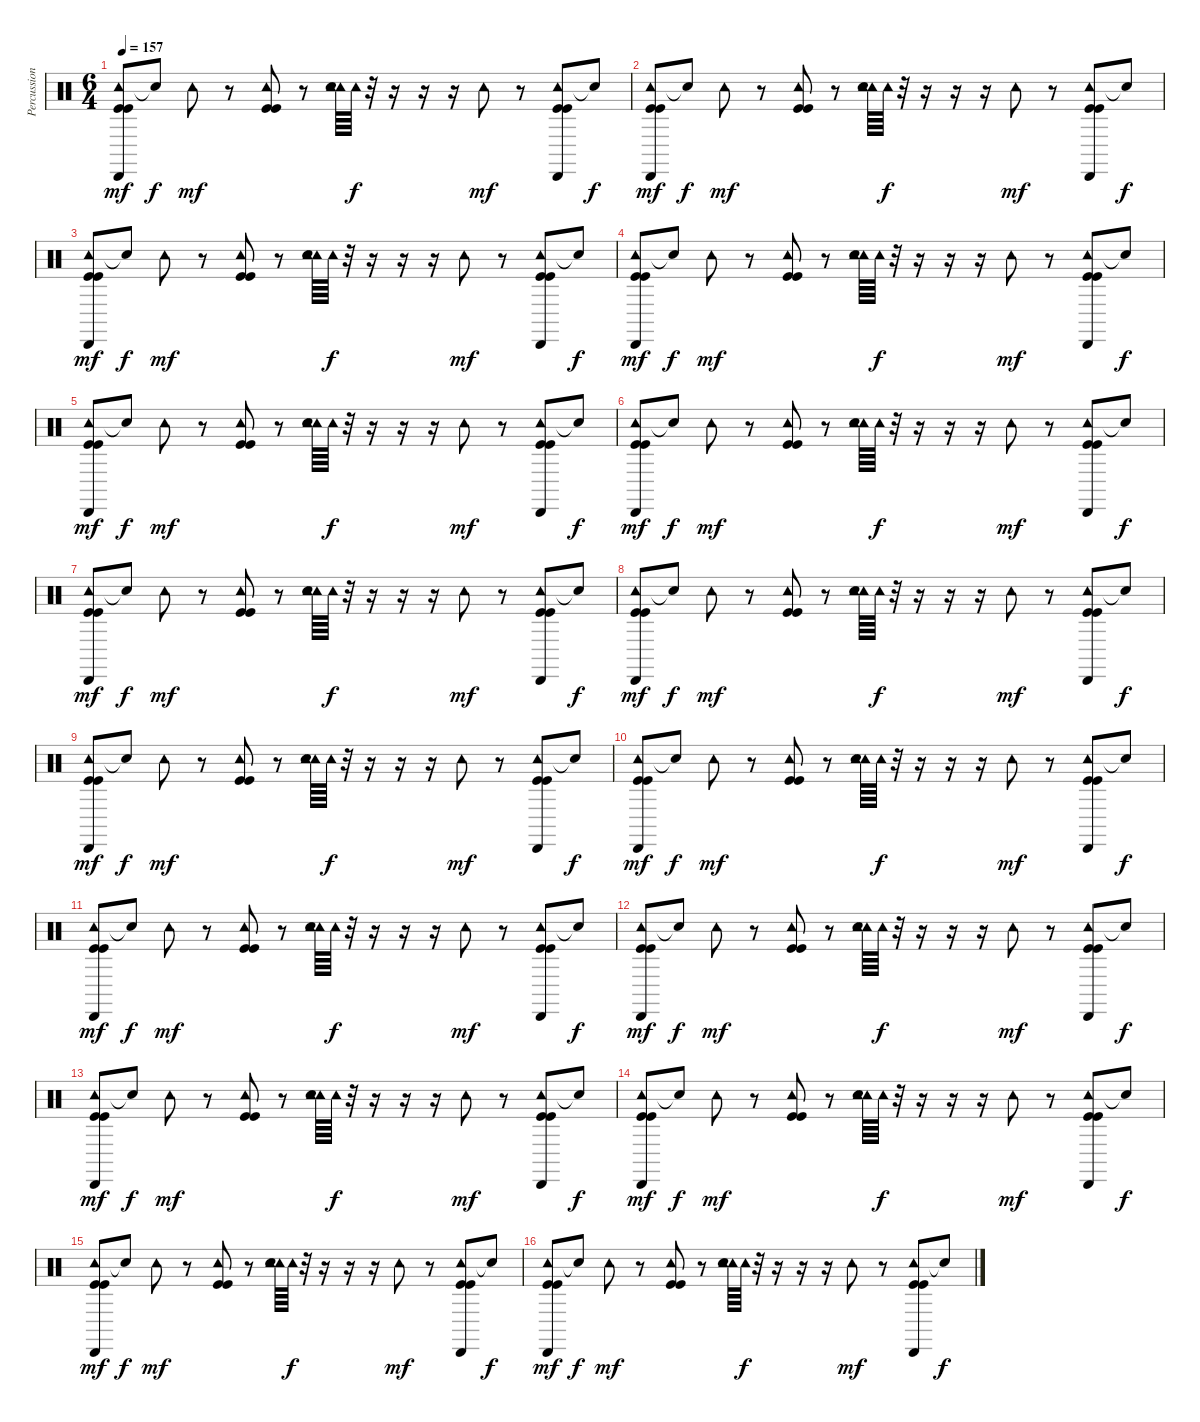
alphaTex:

\track ("Percussions" "Percussion") {instrument percussion}
\staff {score}
\articulation defaults
\ts (6 4)
\tempo 157
\clef neutral
\ks c
("Tambourine (hit)" "Cabasa (hit)" "Kick (hit)" "Kick (hit)").8{dy mf} "Snare (hit)"{t}.8{dy f} "Tambourine (hit)".8{dy mf} r.8 ("Tambourine (hit)" "Kick (hit)" "Kick (hit)").8 r.8 ("Tambourine (hit)" "Tambourine (hit)" "Snare (hit) 2").64 "Tambourine (hit)".64{dy f} r.32 r.16 r.16 r.16 "Tambourine (hit)".8{dy mf} r.8 ("Tambourine (hit)" "Cabasa (hit)" "Kick (hit)" "Kick (hit)").8 "Snare (hit)"{t}.8{dy f} |
("Tambourine (hit)" "Cabasa (hit)" "Kick (hit)" "Kick (hit)").8{dy mf} "Snare (hit)"{t}.8{dy f} "Tambourine (hit)".8{dy mf} r.8 ("Tambourine (hit)" "Kick (hit)" "Kick (hit)").8 r.8 ("Tambourine (hit)" "Tambourine (hit)" "Snare (hit) 2").64 "Tambourine (hit)".64{dy f} r.32 r.16 r.16 r.16 "Tambourine (hit)".8{dy mf} r.8 ("Tambourine (hit)" "Cabasa (hit)" "Kick (hit)" "Kick (hit)").8 "Snare (hit)"{t}.8{dy f} |
("Tambourine (hit)" "Cabasa (hit)" "Kick (hit)" "Kick (hit)").8{dy mf} "Snare (hit)"{t}.8{dy f} "Tambourine (hit)".8{dy mf} r.8 ("Tambourine (hit)" "Kick (hit)" "Kick (hit)").8 r.8 ("Tambourine (hit)" "Tambourine (hit)" "Snare (hit) 2").64 "Tambourine (hit)".64{dy f} r.32 r.16 r.16 r.16 "Tambourine (hit)".8{dy mf} r.8 ("Tambourine (hit)" "Cabasa (hit)" "Kick (hit)" "Kick (hit)").8 "Snare (hit)"{t}.8{dy f} |
("Tambourine (hit)" "Cabasa (hit)" "Kick (hit)" "Kick (hit)").8{dy mf} "Snare (hit)"{t}.8{dy f} "Tambourine (hit)".8{dy mf} r.8 ("Tambourine (hit)" "Kick (hit)" "Kick (hit)").8 r.8 ("Tambourine (hit)" "Tambourine (hit)" "Snare (hit) 2").64 "Tambourine (hit)".64{dy f} r.32 r.16 r.16 r.16 "Tambourine (hit)".8{dy mf} r.8 ("Tambourine (hit)" "Cabasa (hit)" "Kick (hit)" "Kick (hit)").8 "Snare (hit)"{t}.8{dy f} |
("Tambourine (hit)" "Cabasa (hit)" "Kick (hit)" "Kick (hit)").8{dy mf} "Snare (hit)"{t}.8{dy f} "Tambourine (hit)".8{dy mf} r.8 ("Tambourine (hit)" "Kick (hit)" "Kick (hit)").8 r.8 ("Tambourine (hit)" "Tambourine (hit)" "Snare (hit) 2").64 "Tambourine (hit)".64{dy f} r.32 r.16 r.16 r.16 "Tambourine (hit)".8{dy mf} r.8 ("Tambourine (hit)" "Cabasa (hit)" "Kick (hit)" "Kick (hit)").8 "Snare (hit)"{t}.8{dy f} |
("Tambourine (hit)" "Cabasa (hit)" "Kick (hit)" "Kick (hit)").8{dy mf} "Snare (hit)"{t}.8{dy f} "Tambourine (hit)".8{dy mf} r.8 ("Tambourine (hit)" "Kick (hit)" "Kick (hit)").8 r.8 ("Tambourine (hit)" "Tambourine (hit)" "Snare (hit) 2").64 "Tambourine (hit)".64{dy f} r.32 r.16 r.16 r.16 "Tambourine (hit)".8{dy mf} r.8 ("Tambourine (hit)" "Cabasa (hit)" "Kick (hit)" "Kick (hit)").8 "Snare (hit)"{t}.8{dy f} |
("Tambourine (hit)" "Cabasa (hit)" "Kick (hit)" "Kick (hit)").8{dy mf} "Snare (hit)"{t}.8{dy f} "Tambourine (hit)".8{dy mf} r.8 ("Tambourine (hit)" "Kick (hit)" "Kick (hit)").8 r.8 ("Tambourine (hit)" "Tambourine (hit)" "Snare (hit) 2").64 "Tambourine (hit)".64{dy f} r.32 r.16 r.16 r.16 "Tambourine (hit)".8{dy mf} r.8 ("Tambourine (hit)" "Cabasa (hit)" "Kick (hit)" "Kick (hit)").8 "Snare (hit)"{t}.8{dy f} |
("Tambourine (hit)" "Cabasa (hit)" "Kick (hit)" "Kick (hit)").8{dy mf} "Snare (hit)"{t}.8{dy f} "Tambourine (hit)".8{dy mf} r.8 ("Tambourine (hit)" "Kick (hit)" "Kick (hit)").8 r.8 ("Tambourine (hit)" "Tambourine (hit)" "Snare (hit) 2").64 "Tambourine (hit)".64{dy f} r.32 r.16 r.16 r.16 "Tambourine (hit)".8{dy mf} r.8 ("Tambourine (hit)" "Cabasa (hit)" "Kick (hit)" "Kick (hit)").8 "Snare (hit)"{t}.8{dy f} |
("Tambourine (hit)" "Cabasa (hit)" "Kick (hit)" "Kick (hit)").8{dy mf} "Snare (hit)"{t}.8{dy f} "Tambourine (hit)".8{dy mf} r.8 ("Tambourine (hit)" "Kick (hit)" "Kick (hit)").8 r.8 ("Tambourine (hit)" "Tambourine (hit)" "Snare (hit) 2").64 "Tambourine (hit)".64{dy f} r.32 r.16 r.16 r.16 "Tambourine (hit)".8{dy mf} r.8 ("Tambourine (hit)" "Cabasa (hit)" "Kick (hit)" "Kick (hit)").8 "Snare (hit)"{t}.8{dy f} |
("Tambourine (hit)" "Cabasa (hit)" "Kick (hit)" "Kick (hit)").8{dy mf} "Snare (hit)"{t}.8{dy f} "Tambourine (hit)".8{dy mf} r.8 ("Tambourine (hit)" "Kick (hit)" "Kick (hit)").8 r.8 ("Tambourine (hit)" "Tambourine (hit)" "Snare (hit) 2").64 "Tambourine (hit)".64{dy f} r.32 r.16 r.16 r.16 "Tambourine (hit)".8{dy mf} r.8 ("Tambourine (hit)" "Cabasa (hit)" "Kick (hit)" "Kick (hit)").8 "Snare (hit)"{t}.8{dy f} |
("Tambourine (hit)" "Cabasa (hit)" "Kick (hit)" "Kick (hit)").8{dy mf} "Snare (hit)"{t}.8{dy f} "Tambourine (hit)".8{dy mf} r.8 ("Tambourine (hit)" "Kick (hit)" "Kick (hit)").8 r.8 ("Tambourine (hit)" "Tambourine (hit)" "Snare (hit) 2").64 "Tambourine (hit)".64{dy f} r.32 r.16 r.16 r.16 "Tambourine (hit)".8{dy mf} r.8 ("Tambourine (hit)" "Cabasa (hit)" "Kick (hit)" "Kick (hit)").8 "Snare (hit)"{t}.8{dy f} |
("Tambourine (hit)" "Cabasa (hit)" "Kick (hit)" "Kick (hit)").8{dy mf} "Snare (hit)"{t}.8{dy f} "Tambourine (hit)".8{dy mf} r.8 ("Tambourine (hit)" "Kick (hit)" "Kick (hit)").8 r.8 ("Tambourine (hit)" "Tambourine (hit)" "Snare (hit) 2").64 "Tambourine (hit)".64{dy f} r.32 r.16 r.16 r.16 "Tambourine (hit)".8{dy mf} r.8 ("Tambourine (hit)" "Cabasa (hit)" "Kick (hit)" "Kick (hit)").8 "Snare (hit)"{t}.8{dy f} |
("Tambourine (hit)" "Cabasa (hit)" "Kick (hit)" "Kick (hit)").8{dy mf} "Snare (hit)"{t}.8{dy f} "Tambourine (hit)".8{dy mf} r.8 ("Tambourine (hit)" "Kick (hit)" "Kick (hit)").8 r.8 ("Tambourine (hit)" "Tambourine (hit)" "Snare (hit) 2").64 "Tambourine (hit)".64{dy f} r.32 r.16 r.16 r.16 "Tambourine (hit)".8{dy mf} r.8 ("Tambourine (hit)" "Cabasa (hit)" "Kick (hit)" "Kick (hit)").8 "Snare (hit)"{t}.8{dy f} |
("Tambourine (hit)" "Cabasa (hit)" "Kick (hit)" "Kick (hit)").8{dy mf} "Snare (hit)"{t}.8{dy f} "Tambourine (hit)".8{dy mf} r.8 ("Tambourine (hit)" "Kick (hit)" "Kick (hit)").8 r.8 ("Tambourine (hit)" "Tambourine (hit)" "Snare (hit) 2").64 "Tambourine (hit)".64{dy f} r.32 r.16 r.16 r.16 "Tambourine (hit)".8{dy mf} r.8 ("Tambourine (hit)" "Cabasa (hit)" "Kick (hit)" "Kick (hit)").8 "Snare (hit)"{t}.8{dy f} |
("Tambourine (hit)" "Cabasa (hit)" "Kick (hit)" "Kick (hit)").8{dy mf} "Snare (hit)"{t}.8{dy f} "Tambourine (hit)".8{dy mf} r.8 ("Tambourine (hit)" "Kick (hit)" "Kick (hit)").8 r.8 ("Tambourine (hit)" "Tambourine (hit)" "Snare (hit) 2").64 "Tambourine (hit)".64{dy f} r.32 r.16 r.16 r.16 "Tambourine (hit)".8{dy mf} r.8 ("Tambourine (hit)" "Cabasa (hit)" "Kick (hit)" "Kick (hit)").8 "Snare (hit)"{t}.8{dy f} |
("Tambourine (hit)" "Cabasa (hit)" "Kick (hit)" "Kick (hit)").8{dy mf} "Snare (hit)"{t}.8{dy f} "Tambourine (hit)".8{dy mf} r.8 ("Tambourine (hit)" "Kick (hit)" "Kick (hit)").8 r.8 ("Tambourine (hit)" "Tambourine (hit)" "Snare (hit) 2").64 "Tambourine (hit)".64{dy f} r.32 r.16 r.16 r.16 "Tambourine (hit)".8{dy mf} r.8 ("Tambourine (hit)" "Cabasa (hit)" "Kick (hit)" "Kick (hit)").8 "Snare (hit)"{t}.8{dy f}
